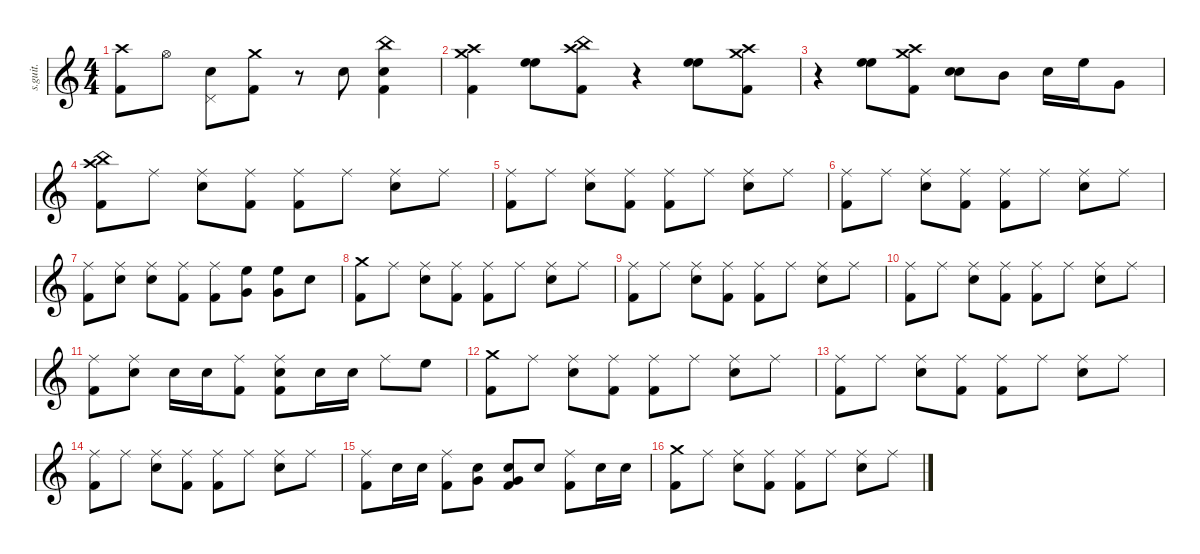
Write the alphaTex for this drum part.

\defaultSystemsLayout 4
\hideDynamics
\bracketExtendMode nobrackets
\track ("Jim Gordon (Drums)" "s.guit.") {instrument percussion}
\staff {score}
\articulation defaults
\ts (4 4)
\tempo (107 hide)
\clef g2
\ks c
("Crash high (hit)" "Kick (hit) 2").8{dy mp} "Hi-Hat (open)".8 ("Snare (hit) 2" "Pedal Hi-Hat (hit)").8 ("Kick (hit) 2" "Crash medium (hit)").8 r.8 "Snare (hit) 2".8 ("Kick (hit) 2" "Snare (hit) 2" "China (hit)").4 |
("Crash high (hit)" "Crash medium (hit)" "Kick (hit) 2").4 ("High Floor Tom (hit)" "High Floor Tom (hit)").8 ("Crash high (hit)" "Kick (hit) 2" "China (hit)").8 r.4 ("High Floor Tom (hit)" "High Floor Tom (hit)").8 ("Kick (hit) 2" "Crash high (hit)" "Crash medium (hit)").8 |
r.4 ("High Floor Tom (hit)" "High Floor Tom (hit)").8 ("Kick (hit) 2" "Crash high (hit)" "Crash medium (hit)").8 ("Snare (hit) 2" "Snare (hit) 2").8 "Mid Tom (hit)".8 "Snare (hit) 2".16 "High Floor Tom (hit)".16 "Very Low Tom (hit)".8 |
("Crash high (hit)" "China (hit)" "Kick (hit) 2").8 "Ride (middle)".8 ("Snare (hit) 2" "Ride (middle)").8 ("Kick (hit) 2" "Ride (middle)").8 ("Ride (middle)" "Kick (hit) 2").8 "Ride (middle)".8 ("Snare (hit) 2" "Ride (middle)").8 "Ride (middle)".8 |
("Ride (middle)" "Kick (hit) 2").8 "Ride (middle)".8 ("Snare (hit) 2" "Ride (middle)").8 ("Kick (hit) 2" "Ride (middle)").8 ("Ride (middle)" "Kick (hit) 2").8 "Ride (middle)".8 ("Snare (hit) 2" "Ride (middle)").8 "Ride (middle)".8 |
("Ride (middle)" "Kick (hit) 2").8 "Ride (middle)".8 ("Snare (hit) 2" "Ride (middle)").8 ("Ride (middle)" "Kick (hit) 2").8 ("Ride (middle)" "Kick (hit) 2").8 "Ride (middle)".8 ("Snare (hit) 2" "Ride (middle)").8 "Ride (middle)".8 |
("Ride (middle)" "Kick (hit) 2").8 ("Snare (hit) 2" "Ride (middle)").8 ("Snare (hit) 2" "Ride (middle)").8 ("Ride (middle)" "Kick (hit) 2").8 ("Ride (middle)" "Kick (hit) 2").8 ("Very Low Tom (hit)" "High Floor Tom (hit)").8 ("Very Low Tom (hit)" "High Floor Tom (hit)").8 "Snare (hit) 2".8 |
("Crash medium (hit)" "Kick (hit) 2").8 "Ride (middle)".8 ("Snare (hit) 2" "Ride (middle)").8 ("Kick (hit) 2" "Ride (middle)").8 ("Ride (middle)" "Kick (hit) 2").8 "Ride (middle)".8 ("Ride (middle)" "Snare (hit) 2").8 "Ride (middle)".8 |
("Ride (middle)" "Kick (hit) 2").8 "Ride (middle)".8 ("Snare (hit) 2" "Ride (middle)").8 ("Kick (hit) 2" "Ride (middle)").8 ("Ride (middle)" "Kick (hit) 2").8 "Ride (middle)".8 ("Snare (hit) 2" "Ride (middle)").8 "Ride (middle)".8 |
("Ride (middle)" "Kick (hit) 2").8 "Ride (middle)".8 ("Ride (middle)" "Snare (hit) 2").8 ("Kick (hit) 2" "Ride (middle)").8 ("Ride (middle)" "Kick (hit) 2").8 "Ride (middle)".8 ("Snare (hit) 2" "Ride (middle)").8 "Ride (middle)".8 |
("Ride (middle)" "Kick (hit) 2").8 ("Snare (hit) 2" "Ride (middle)").8 "Snare (hit) 2".16 "Snare (hit) 2".16 ("Ride (middle)" "Kick (hit) 2").8 ("Snare (hit) 2" "Ride (middle)" "Kick (hit) 2").8 "Snare (hit) 2".16 "Snare (hit) 2".16 "Ride (middle)".8 "High Floor Tom (hit)".8 |
("Crash medium (hit)" "Kick (hit) 2").8 "Ride (middle)".8 ("Snare (hit) 2" "Ride (middle)").8 ("Kick (hit) 2" "Ride (middle)").8 ("Ride (middle)" "Kick (hit) 2").8 "Ride (middle)".8 ("Snare (hit) 2" "Ride (middle)").8 "Ride (middle)".8 |
("Ride (middle)" "Kick (hit) 2").8 "Ride (middle)".8 ("Snare (hit) 2" "Ride (middle)").8 ("Kick (hit) 2" "Ride (middle)").8 ("Ride (middle)" "Kick (hit) 2").8 "Ride (middle)".8 ("Snare (hit) 2" "Ride (middle)").8 "Ride (middle)".8 |
("Ride (middle)" "Kick (hit) 2").8 "Ride (middle)".8 ("Snare (hit) 2" "Ride (middle)").8 ("Kick (hit) 2" "Ride (middle)").8 ("Ride (middle)" "Kick (hit) 2").8 "Ride (middle)".8 ("Snare (hit) 2" "Ride (middle)").8 "Ride (middle)".8 |
("Ride (middle)" "Kick (hit) 2").8 "Snare (hit) 2".16 "Snare (hit) 2".16 ("Ride (middle)" "Kick (hit) 2").8 ("Snare (hit) 2" "Very Low Tom (hit)").8 ("Snare (hit) 2" "Very Low Tom (hit)" "Kick (hit) 2").8 "Snare (hit) 2".8 ("Ride (middle)" "Kick (hit) 2").8 "Snare (hit) 2".16 "Snare (hit) 2".16 |
("Crash medium (hit)" "Kick (hit) 2").8 "Ride (middle)".8 ("Snare (hit) 2" "Ride (middle)").8 ("Kick (hit) 2" "Ride (middle)").8 ("Ride (middle)" "Kick (hit) 2").8 "Ride (middle)".8 ("Snare (hit) 2" "Ride (middle)").8 "Ride (middle)".8
